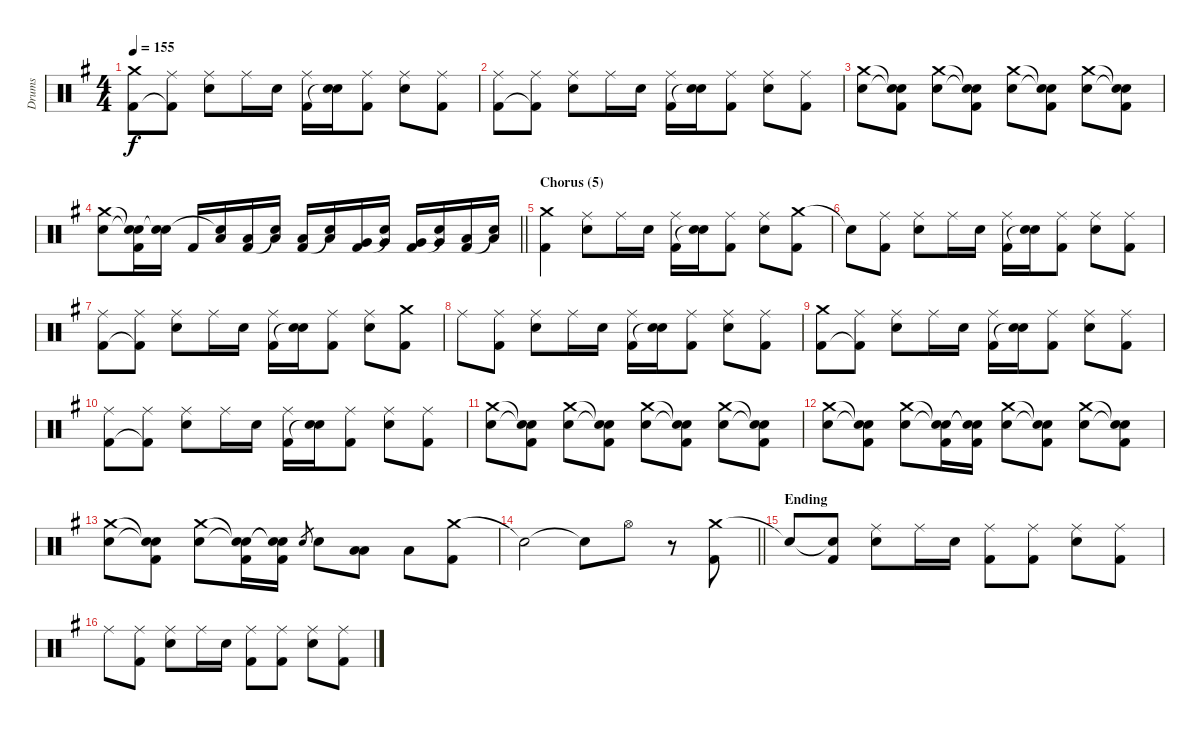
\track ("Drums" "Drums") {instrument percussion}
\staff {score}
\articulation defaults
\ts (4 4)
\tempo 155
\clef neutral
\ks eminor
("Crash medium (hit)" "Kick (hit) 2").8{dy f} ("Ride (middle)" "Kick (hit) 2"{t}).8 ("Ride (middle)" "Electric Snare (hit)").8 "Ride (middle)".16 "Electric Snare (hit)".16 ("Ride (middle)" "Kick (hit) 2").16 ("Electric Snare (hit)" "Snare (hit)"{t}).16 ("Ride (middle)" "Kick (hit) 2").8 ("Ride (middle)" "Electric Snare (hit)").8 ("Ride (middle)" "Kick (hit) 2").8 |
("Ride (middle)" "Kick (hit) 2").8 ("Ride (middle)" "Kick (hit) 2"{t}).8 ("Ride (middle)" "Electric Snare (hit)").8 "Ride (middle)".16 "Electric Snare (hit)".16 ("Ride (middle)" "Kick (hit) 2").16 ("Electric Snare (hit)" "Snare (hit)"{t}).16 ("Ride (middle)" "Kick (hit) 2").8 ("Ride (middle)" "Electric Snare (hit)").8 ("Ride (middle)" "Kick (hit) 2").8 |
("Crash medium (hit)" "Electric Snare (hit)").8 ("Snare (hit)"{t} "Snare (hit)"{t} "Kick (hit) 2").8 ("Crash medium (hit)" "Electric Snare (hit)").8 ("Snare (hit)"{t} "Snare (hit)"{t} "Kick (hit) 2").8 ("Crash medium (hit)" "Electric Snare (hit)").8 ("Snare (hit)"{t} "Snare (hit)"{t} "Kick (hit) 2").8 ("Crash medium (hit)" "Electric Snare (hit)").8 ("Snare (hit)"{t} "Snare (hit)"{t} "Kick (hit) 2").8 |
\barLineRight lightlight
("Crash medium (hit)" "Electric Snare (hit)").8 ("Snare (hit)"{t} "Snare (hit)"{t} "Kick (hit) 2").16 ("Electric Snare (hit)" "Snare (hit)"{t}).16 "Kick (hit) 2".16 ("Low Tom (hit)" "Snare (hit)"{t}).16 ("Low Tom (hit)" "Kick (hit) 2").16 ("Low Tom (hit)" "Snare (hit)"{t}).16 ("Low Tom (hit)" "Kick (hit) 2").16 ("Low Tom (hit)" "Snare (hit)"{t}).16 ("Very Low Tom (hit)" "Kick (hit) 2").16 ("Very Low Tom (hit)" "Snare (hit)"{t}).16 ("Very Low Tom (hit)" "Kick (hit) 2").16 ("Very Low Tom (hit)" "Snare (hit)"{t}).16 ("Low Floor Tom (hit)" "Kick (hit) 2").16 ("Low Floor Tom (hit)" "Snare (hit)"{t}).16 |
\section ("" "Chorus (5)")
("Crash medium (hit)" "Kick (hit) 2").4 ("Ride (middle)" "Electric Snare (hit)").8 "Ride (middle)".16 "Electric Snare (hit)".16 ("Ride (middle)" "Kick (hit) 2").16 ("Electric Snare (hit)" "Snare (hit)"{t}).16 ("Ride (middle)" "Kick (hit) 2").8 ("Ride (middle)" "Electric Snare (hit)").8 ("Crash medium (hit)" "Kick (hit) 2").8 |
"Snare (hit)"{t}.8 ("Ride (middle)" "Kick (hit) 2").8 ("Ride (middle)" "Electric Snare (hit)").8 "Ride (middle)".16 "Electric Snare (hit)".16 ("Ride (middle)" "Kick (hit) 2").16 ("Electric Snare (hit)" "Snare (hit)"{t}).16 ("Ride (middle)" "Kick (hit) 2").8 ("Ride (middle)" "Electric Snare (hit)").8 ("Ride (middle)" "Kick (hit) 2").8 |
("Ride (middle)" "Kick (hit) 2").8 ("Ride (middle)" "Kick (hit) 2"{t}).8 ("Ride (middle)" "Electric Snare (hit)").8 "Ride (middle)".16 "Electric Snare (hit)".16 ("Ride (middle)" "Kick (hit) 2").16 ("Electric Snare (hit)" "Snare (hit)"{t}).16 ("Ride (middle)" "Kick (hit) 2").8 ("Ride (middle)" "Electric Snare (hit)").8 ("Crash medium (hit)" "Kick (hit) 2").8 |
"Ride (middle)".8 ("Ride (middle)" "Kick (hit) 2").8 ("Ride (middle)" "Electric Snare (hit)").8 "Ride (middle)".16 "Electric Snare (hit)".16 ("Ride (middle)" "Kick (hit) 2").16 ("Electric Snare (hit)" "Snare (hit)"{t}).16 ("Ride (middle)" "Kick (hit) 2").8 ("Ride (middle)" "Electric Snare (hit)").8 ("Ride (middle)" "Kick (hit) 2").8 |
("Crash medium (hit)" "Kick (hit) 2").8 ("Ride (middle)" "Kick (hit) 2"{t}).8 ("Ride (middle)" "Electric Snare (hit)").8 "Ride (middle)".16 "Electric Snare (hit)".16 ("Ride (middle)" "Kick (hit) 2").16 ("Electric Snare (hit)" "Snare (hit)"{t}).16 ("Ride (middle)" "Kick (hit) 2").8 ("Ride (middle)" "Electric Snare (hit)").8 ("Ride (middle)" "Kick (hit) 2").8 |
("Ride (middle)" "Kick (hit) 2").8 ("Ride (middle)" "Kick (hit) 2"{t}).8 ("Ride (middle)" "Electric Snare (hit)").8 "Ride (middle)".16 "Electric Snare (hit)".16 ("Ride (middle)" "Kick (hit) 2").16 ("Electric Snare (hit)" "Snare (hit)"{t}).16 ("Ride (middle)" "Kick (hit) 2").8 ("Ride (middle)" "Electric Snare (hit)").8 ("Ride (middle)" "Kick (hit) 2").8 |
("Crash medium (hit)" "Electric Snare (hit)").8 ("Snare (hit)"{t} "Snare (hit)"{t} "Kick (hit) 2").8 ("Crash medium (hit)" "Electric Snare (hit)").8 ("Snare (hit)"{t} "Snare (hit)"{t} "Kick (hit) 2").8 ("Crash medium (hit)" "Electric Snare (hit)").8 ("Snare (hit)"{t} "Snare (hit)"{t} "Kick (hit) 2").8 ("Crash medium (hit)" "Electric Snare (hit)").8 ("Snare (hit)"{t} "Snare (hit)"{t} "Kick (hit) 2").8 |
("Crash medium (hit)" "Electric Snare (hit)").8 ("Snare (hit)"{t} "Snare (hit)"{t} "Kick (hit) 2").8 ("Crash medium (hit)" "Electric Snare (hit)").8 ("Snare (hit)"{t} "Snare (hit)"{t} "Kick (hit) 2").16 ("Snare (hit)"{t} "Snare (hit)"{t} "Kick (hit) 2").16 ("Crash medium (hit)" "Electric Snare (hit)").8 ("Snare (hit)"{t} "Snare (hit)"{t} "Kick (hit) 2").8 ("Crash medium (hit)" "Electric Snare (hit)").8 ("Snare (hit)"{t} "Snare (hit)"{t} "Kick (hit) 2").8 |
("Crash medium (hit)" "Electric Snare (hit)").8 ("Snare (hit)"{t} "Snare (hit)"{t} "Kick (hit) 2").8 ("Crash medium (hit)" "Electric Snare (hit)").8 ("Snare (hit)"{t} "Snare (hit)"{t} "Kick (hit) 2").16 ("Snare (hit)"{t} "Snare (hit)"{t} "Kick (hit) 2").16 "Electric Snare (hit)".8{gr} "Electric Snare (hit)".8 ("Low Tom (hit)" "Low Floor Tom (hit)").8 "Low Floor Tom (hit)".8 ("Crash medium (hit)" "Kick (hit) 2").8 |
\barLineRight lightlight "Snare (hit)"{t}.2 "Snare (hit)"{t}.8 "Hi-Hat (open)".8
r.8 ("Crash medium (hit)" "Kick (hit) 2").8 |
\section ("" "Ending")
"Snare (hit)"{t}.8 ("Snare (hit)"{t} "Kick (hit) 2").8 ("Ride (middle)" "Electric Snare (hit)").8 "Ride (middle)".16 "Electric Snare (hit)".16 ("Ride (middle)" "Kick (hit) 2").8 ("Ride (middle)" "Kick (hit) 2").8 ("Ride (middle)" "Electric Snare (hit)").8 ("Ride (middle)" "Kick (hit) 2").8 |
"Ride (middle)".8 ("Ride (middle)" "Kick (hit) 2").8 ("Ride (middle)" "Electric Snare (hit)").8 "Ride (middle)".16 "Electric Snare (hit)".16 ("Ride (middle)" "Kick (hit) 2").8 ("Ride (middle)" "Kick (hit) 2").8 ("Ride (middle)" "Electric Snare (hit)").8 ("Ride (middle)" "Kick (hit) 2").8
